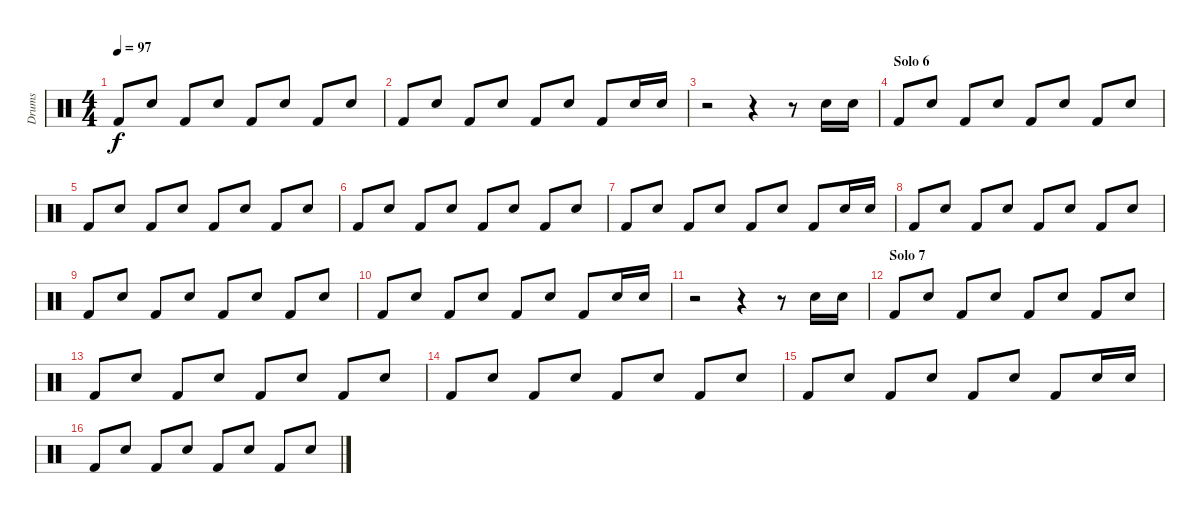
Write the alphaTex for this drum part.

\track ("Drums" "Drums") {instrument percussion}
\staff {score}
\articulation defaults
\ts (4 4)
\tempo 97
\clef neutral
\ks c "Kick (hit) 2".8{dy f} "Electric Snare (hit)".8 "Kick (hit) 2".8 "Electric Snare (hit)".8 "Kick (hit) 2".8 "Electric Snare (hit)".8 "Kick (hit) 2".8 "Electric Snare (hit)".8
|
"Kick (hit) 2".8 "Electric Snare (hit)".8 "Kick (hit) 2".8 "Electric Snare (hit)".8 "Kick (hit) 2".8 "Electric Snare (hit)".8 "Kick (hit) 2".8 "Electric Snare (hit)".16 "Electric Snare (hit)".16 |
r.2 r.4 r.8 "Electric Snare (hit)".16 "Electric Snare (hit)".16 |
\section ("" "Solo 6")
"Kick (hit) 2".8 "Electric Snare (hit)".8 "Kick (hit) 2".8 "Electric Snare (hit)".8 "Kick (hit) 2".8 "Electric Snare (hit)".8 "Kick (hit) 2".8 "Electric Snare (hit)".8 |
"Kick (hit) 2".8 "Electric Snare (hit)".8 "Kick (hit) 2".8 "Electric Snare (hit)".8 "Kick (hit) 2".8 "Electric Snare (hit)".8 "Kick (hit) 2".8 "Electric Snare (hit)".8 |
"Kick (hit) 2".8 "Electric Snare (hit)".8 "Kick (hit) 2".8 "Electric Snare (hit)".8 "Kick (hit) 2".8 "Electric Snare (hit)".8 "Kick (hit) 2".8 "Electric Snare (hit)".8 |
"Kick (hit) 2".8 "Electric Snare (hit)".8 "Kick (hit) 2".8 "Electric Snare (hit)".8 "Kick (hit) 2".8 "Electric Snare (hit)".8 "Kick (hit) 2".8 "Electric Snare (hit)".16 "Electric Snare (hit)".16 |
"Kick (hit) 2".8 "Electric Snare (hit)".8 "Kick (hit) 2".8 "Electric Snare (hit)".8 "Kick (hit) 2".8 "Electric Snare (hit)".8 "Kick (hit) 2".8 "Electric Snare (hit)".8 |
"Kick (hit) 2".8 "Electric Snare (hit)".8 "Kick (hit) 2".8 "Electric Snare (hit)".8 "Kick (hit) 2".8 "Electric Snare (hit)".8 "Kick (hit) 2".8 "Electric Snare (hit)".8 |
"Kick (hit) 2".8 "Electric Snare (hit)".8 "Kick (hit) 2".8 "Electric Snare (hit)".8 "Kick (hit) 2".8 "Electric Snare (hit)".8 "Kick (hit) 2".8 "Electric Snare (hit)".16 "Electric Snare (hit)".16 |
r.2 r.4 r.8 "Electric Snare (hit)".16 "Electric Snare (hit)".16 |
\section ("" "Solo 7")
"Kick (hit) 2".8 "Electric Snare (hit)".8 "Kick (hit) 2".8 "Electric Snare (hit)".8 "Kick (hit) 2".8 "Electric Snare (hit)".8 "Kick (hit) 2".8 "Electric Snare (hit)".8 |
"Kick (hit) 2".8 "Electric Snare (hit)".8 "Kick (hit) 2".8 "Electric Snare (hit)".8 "Kick (hit) 2".8 "Electric Snare (hit)".8 "Kick (hit) 2".8 "Electric Snare (hit)".8 |
"Kick (hit) 2".8 "Electric Snare (hit)".8 "Kick (hit) 2".8 "Electric Snare (hit)".8 "Kick (hit) 2".8 "Electric Snare (hit)".8 "Kick (hit) 2".8 "Electric Snare (hit)".8 |
"Kick (hit) 2".8 "Electric Snare (hit)".8 "Kick (hit) 2".8 "Electric Snare (hit)".8 "Kick (hit) 2".8 "Electric Snare (hit)".8 "Kick (hit) 2".8 "Electric Snare (hit)".16 "Electric Snare (hit)".16 |
"Kick (hit) 2".8 "Electric Snare (hit)".8 "Kick (hit) 2".8 "Electric Snare (hit)".8 "Kick (hit) 2".8 "Electric Snare (hit)".8 "Kick (hit) 2".8 "Electric Snare (hit)".8
